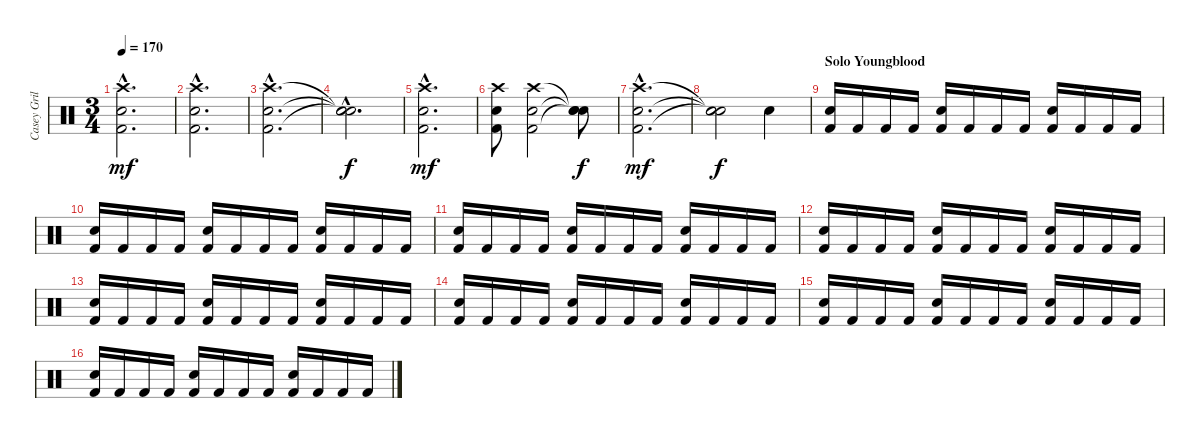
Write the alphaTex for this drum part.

\track ("Casey Grillo" "Casey Gril") {instrument percussion}
\staff {score}
\articulation defaults
\ts (3 4)
\tempo 170
\clef neutral
\ks c
("Snare (hit) 2"{hac} "Kick (hit) 2"{hac} "Crash high (hit)"{hac}).2{d dy mf} |
("Snare (hit) 2"{hac} "Kick (hit) 2"{hac} "Crash high (hit)"{hac}).2{d} |
("Snare (hit) 2"{hac} "Kick (hit) 2"{hac} "Crash high (hit)"{hac}).2{d} |
("Snare (hit)"{hac t} "Snare (hit)"{hac t} "Snare (hit)"{hac t}).2{d dy f} |
("Snare (hit) 2"{hac} "Kick (hit) 2"{hac} "Crash high (hit)"{hac}).2{d dy mf} |
("Snare (hit) 2" "Kick (hit) 2" "Crash high (hit)").8 ("Snare (hit) 2" "Kick (hit) 2" "Crash high (hit)").2 ("Snare (hit)"{t} "Snare (hit)"{t} "Snare (hit)"{t}).8{dy f} |
("Snare (hit) 2"{hac} "Kick (hit) 2"{hac} "Crash high (hit)"{hac}).2{d dy mf} |
("Snare (hit)"{t} "Snare (hit)"{t} "Snare (hit)"{t}).2{dy f} "Snare (hit) 2".4 |
\section ("" "Solo Youngblood")
("Snare (hit) 2" "Kick (hit) 2").16 "Kick (hit) 2".16 "Kick (hit) 2".16 "Kick (hit) 2".16 ("Snare (hit) 2" "Kick (hit) 2").16 "Kick (hit) 2".16 "Kick (hit) 2".16 "Kick (hit) 2".16 ("Snare (hit) 2" "Kick (hit) 2").16 "Kick (hit) 2".16 "Kick (hit) 2".16 "Kick (hit) 2".16 |
("Snare (hit) 2" "Kick (hit) 2").16 "Kick (hit) 2".16 "Kick (hit) 2".16 "Kick (hit) 2".16 ("Snare (hit) 2" "Kick (hit) 2").16 "Kick (hit) 2".16 "Kick (hit) 2".16 "Kick (hit) 2".16 ("Snare (hit) 2" "Kick (hit) 2").16 "Kick (hit) 2".16 "Kick (hit) 2".16 "Kick (hit) 2".16 |
("Snare (hit) 2" "Kick (hit) 2").16 "Kick (hit) 2".16 "Kick (hit) 2".16 "Kick (hit) 2".16 ("Snare (hit) 2" "Kick (hit) 2").16 "Kick (hit) 2".16 "Kick (hit) 2".16 "Kick (hit) 2".16 ("Snare (hit) 2" "Kick (hit) 2").16 "Kick (hit) 2".16 "Kick (hit) 2".16 "Kick (hit) 2".16 |
("Snare (hit) 2" "Kick (hit) 2").16 "Kick (hit) 2".16 "Kick (hit) 2".16 "Kick (hit) 2".16 ("Snare (hit) 2" "Kick (hit) 2").16 "Kick (hit) 2".16 "Kick (hit) 2".16 "Kick (hit) 2".16 ("Snare (hit) 2" "Kick (hit) 2").16 "Kick (hit) 2".16 "Kick (hit) 2".16 "Kick (hit) 2".16 |
("Snare (hit) 2" "Kick (hit) 2").16 "Kick (hit) 2".16 "Kick (hit) 2".16 "Kick (hit) 2".16 ("Snare (hit) 2" "Kick (hit) 2").16 "Kick (hit) 2".16 "Kick (hit) 2".16 "Kick (hit) 2".16 ("Snare (hit) 2" "Kick (hit) 2").16 "Kick (hit) 2".16 "Kick (hit) 2".16 "Kick (hit) 2".16 |
("Snare (hit) 2" "Kick (hit) 2").16 "Kick (hit) 2".16 "Kick (hit) 2".16 "Kick (hit) 2".16 ("Snare (hit) 2" "Kick (hit) 2").16 "Kick (hit) 2".16 "Kick (hit) 2".16 "Kick (hit) 2".16 ("Snare (hit) 2" "Kick (hit) 2").16 "Kick (hit) 2".16 "Kick (hit) 2".16 "Kick (hit) 2".16 |
("Snare (hit) 2" "Kick (hit) 2").16 "Kick (hit) 2".16 "Kick (hit) 2".16 "Kick (hit) 2".16 ("Snare (hit) 2" "Kick (hit) 2").16 "Kick (hit) 2".16 "Kick (hit) 2".16 "Kick (hit) 2".16 ("Snare (hit) 2" "Kick (hit) 2").16 "Kick (hit) 2".16 "Kick (hit) 2".16 "Kick (hit) 2".16 |
("Snare (hit) 2" "Kick (hit) 2").16 "Kick (hit) 2".16 "Kick (hit) 2".16 "Kick (hit) 2".16 ("Snare (hit) 2" "Kick (hit) 2").16 "Kick (hit) 2".16 "Kick (hit) 2".16 "Kick (hit) 2".16 ("Snare (hit) 2" "Kick (hit) 2").16 "Kick (hit) 2".16 "Kick (hit) 2".16 "Kick (hit) 2".16
